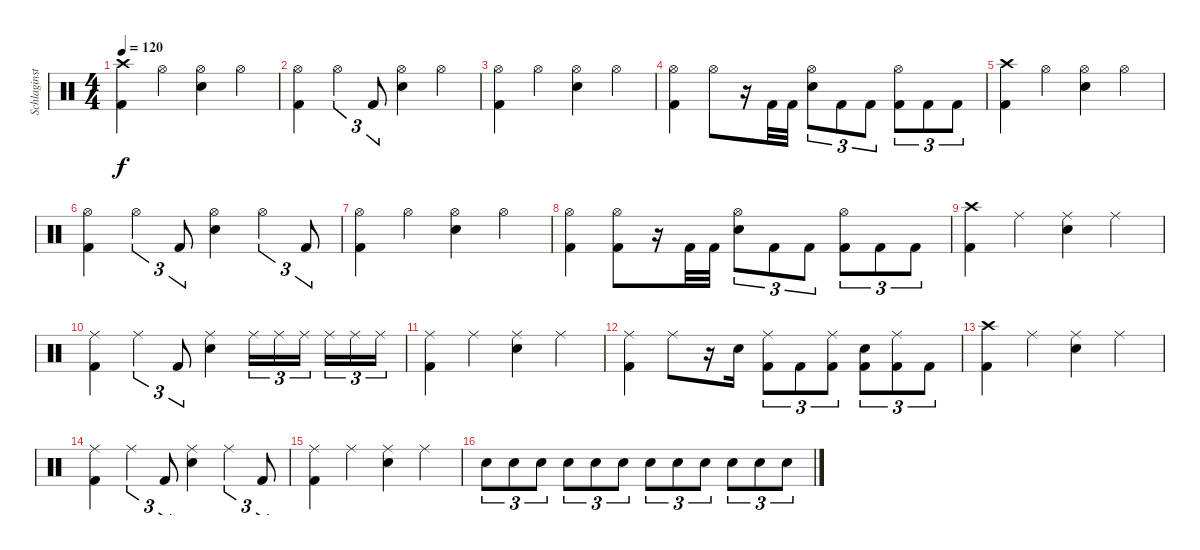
\track ("Schlaginstrumente - Auswahl" "Schlaginst") {instrument percussion}
\staff {score}
\articulation defaults
\ts (4 4)
\tempo 120
\clef neutral
\ks c
("Crash high (hit)" "Kick (hit) 2").4{dy f} "Hi-Hat (open)".4 ("Hi-Hat (open)" "Electric Snare (hit)").4 "Hi-Hat (open)".4 |
("Hi-Hat (open)" "Kick (hit) 2").4 "Hi-Hat (open)".4{tu (3 2)} "Kick (hit) 2".8{tu (3 2)} ("Hi-Hat (open)" "Electric Snare (hit)").4 "Hi-Hat (open)".4 |
("Hi-Hat (open)" "Kick (hit) 2").4 "Hi-Hat (open)".4 ("Hi-Hat (open)" "Electric Snare (hit)").4 "Hi-Hat (open)".4 |
("Hi-Hat (open)" "Kick (hit) 2").4 "Hi-Hat (open)".8 r.16 "Kick (hit) 2".32 "Kick (hit) 2".32 ("Hi-Hat (open)" "Electric Snare (hit)").8{tu (3 2)} "Kick (hit) 2".8{tu (3 2)} "Kick (hit) 2".8{tu (3 2)} ("Hi-Hat (open)" "Kick (hit) 2").8{tu (3 2)} "Kick (hit) 2".8{tu (3 2)} "Kick (hit) 2".8{tu (3 2)} |
("Crash high (hit)" "Kick (hit) 2").4 "Hi-Hat (open)".4 ("Hi-Hat (open)" "Electric Snare (hit)").4 "Hi-Hat (open)".4 |
("Hi-Hat (open)" "Kick (hit) 2").4 "Hi-Hat (open)".4{tu (3 2)} "Kick (hit) 2".8{tu (3 2)} ("Hi-Hat (open)" "Electric Snare (hit)").4 "Hi-Hat (open)".4{tu (3 2)} "Kick (hit) 2".8{tu (3 2)} |
("Hi-Hat (open)" "Kick (hit) 2").4 "Hi-Hat (open)".4 ("Hi-Hat (open)" "Electric Snare (hit)").4 "Hi-Hat (open)".4 |
("Hi-Hat (open)" "Kick (hit) 2").4 ("Hi-Hat (open)" "Kick (hit) 2").8 r.16 "Kick (hit) 2".32 "Kick (hit) 2".32 ("Hi-Hat (open)" "Electric Snare (hit)").8{tu (3 2)} "Kick (hit) 2".8{tu (3 2)} "Kick (hit) 2".8{tu (3 2)} ("Hi-Hat (open)" "Kick (hit) 2").8{tu (3 2)} "Kick (hit) 2".8{tu (3 2)} "Kick (hit) 2".8{tu (3 2)} |
("Crash high (hit)" "Kick (hit) 2").4 "Ride (middle)".4 ("Ride (middle)" "Electric Snare (hit)").4 "Ride (middle)".4 |
("Ride (middle)" "Kick (hit) 2").4 "Ride (middle)".4{tu (3 2)} "Kick (hit) 2".8{tu (3 2)} ("Ride (middle)" "Electric Snare (hit)").4 "Ride (middle)".16{tu (3 2)} "Ride (middle)".16{tu (3 2)} "Ride (middle)".16{tu (3 2) beam splitsecondary} "Ride (middle)".16{tu (3 2)} "Ride (middle)".16{tu (3 2)} "Ride (middle)".16{tu (3 2)} |
("Ride (middle)" "Kick (hit) 2").4 "Ride (middle)".4 ("Ride (middle)" "Electric Snare (hit)").4 "Ride (middle)".4 |
("Ride (middle)" "Kick (hit) 2").4 "Ride (middle)".8 r.16 "Electric Snare (hit)".16 ("Ride (middle)" "Kick (hit) 2").8{tu (3 2)} "Kick (hit) 2".8{tu (3 2)} ("Ride (middle)" "Kick (hit) 2").8{tu (3 2)} ("Electric Snare (hit)" "Kick (hit) 2").8{tu (3 2)} ("Ride (middle)" "Kick (hit) 2").8{tu (3 2)} "Kick (hit) 2".8{tu (3 2)} |
("Crash high (hit)" "Kick (hit) 2").4 "Ride (middle)".4 ("Ride (middle)" "Electric Snare (hit)").4 "Ride (middle)".4 |
("Ride (middle)" "Kick (hit) 2").4 "Ride (middle)".4{tu (3 2)} "Kick (hit) 2".8{tu (3 2)} ("Ride (middle)" "Electric Snare (hit)").4 "Ride (middle)".4{tu (3 2)} "Kick (hit) 2".8{tu (3 2)} |
("Ride (middle)" "Kick (hit) 2").4 "Ride (middle)".4 ("Ride (middle)" "Electric Snare (hit)").4 "Ride (middle)".4 |
"Electric Snare (hit)".8{tu (3 2)} "Electric Snare (hit)".8{tu (3 2)} "Electric Snare (hit)".8{tu (3 2)} "Electric Snare (hit)".8{tu (3 2)} "Electric Snare (hit)".8{tu (3 2)} "Electric Snare (hit)".8{tu (3 2)} "Electric Snare (hit)".8{tu (3 2)} "Electric Snare (hit)".8{tu (3 2)} "Electric Snare (hit)".8{tu (3 2)} "Electric Snare (hit)".8{tu (3 2)} "Electric Snare (hit)".8{tu (3 2)} "Electric Snare (hit)".8{tu (3 2)}
